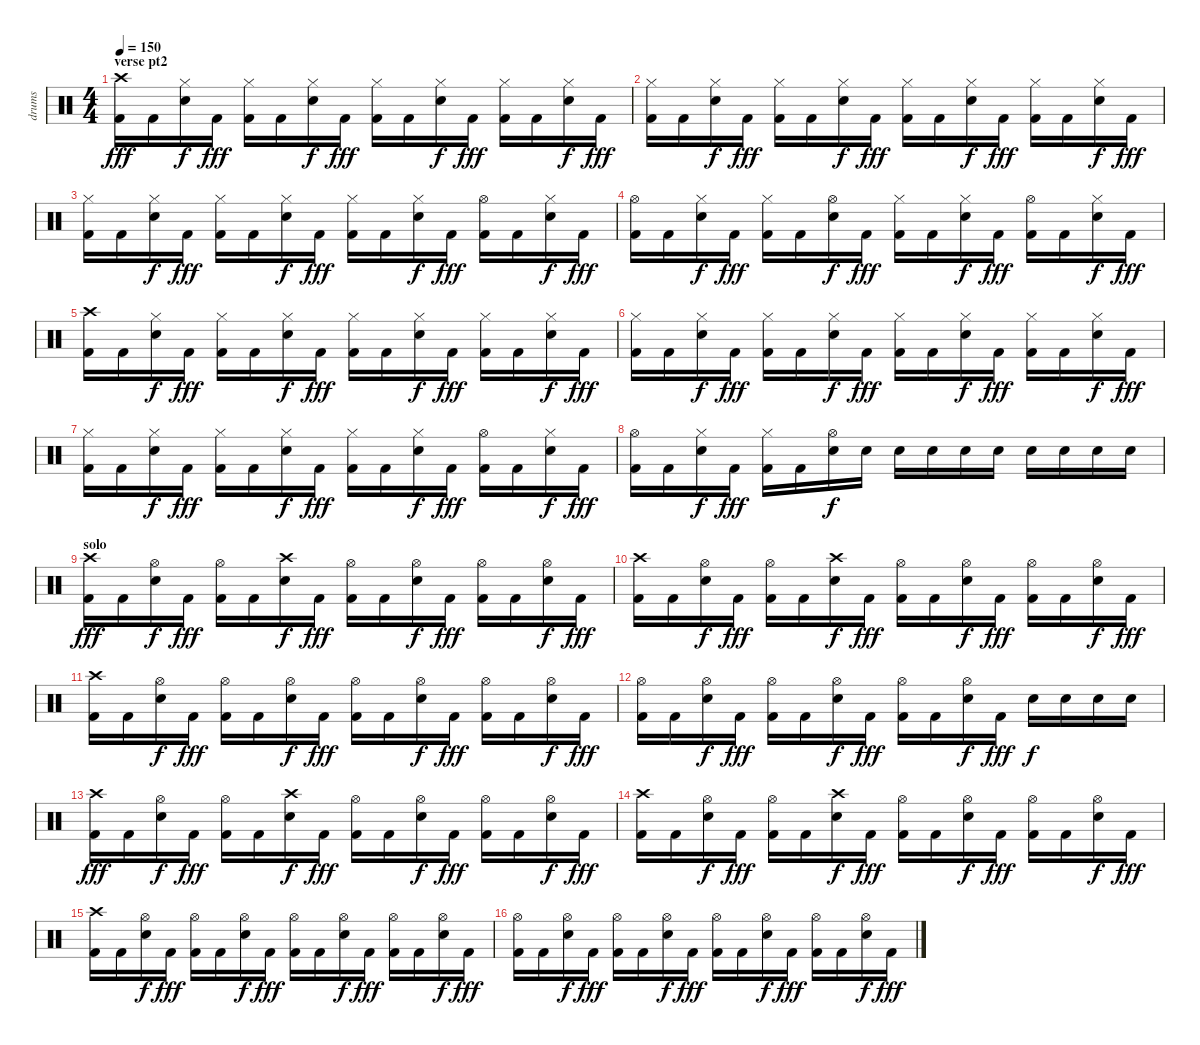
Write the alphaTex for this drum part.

\track ("drums" "drums") {instrument percussion}
\staff {score}
\articulation defaults
\ts (4 4)
\section ("" "verse pt2")
\tempo 150
\clef neutral
\ks c
("Crash high (hit)" "Kick (hit) 2").16{dy fff} "Kick (hit) 2".16 ("Hi-Hat (closed)" "Snare (hit) 2").16{dy f} "Kick (hit) 2".16{dy fff} ("Hi-Hat (closed)" "Kick (hit) 2").16 "Kick (hit) 2".16 ("Hi-Hat (closed)" "Snare (hit) 2").16{dy f} "Kick (hit) 2".16{dy fff} ("Hi-Hat (closed)" "Kick (hit) 2").16 "Kick (hit) 2".16 ("Hi-Hat (closed)" "Snare (hit) 2").16{dy f} "Kick (hit) 2".16{dy fff} ("Hi-Hat (closed)" "Kick (hit) 2").16 "Kick (hit) 2".16 ("Hi-Hat (closed)" "Snare (hit) 2").16{dy f} "Kick (hit) 2".16{dy fff} |
("Hi-Hat (closed)" "Kick (hit) 2").16 "Kick (hit) 2".16 ("Hi-Hat (closed)" "Snare (hit) 2").16{dy f} "Kick (hit) 2".16{dy fff} ("Hi-Hat (closed)" "Kick (hit) 2").16 "Kick (hit) 2".16 ("Hi-Hat (closed)" "Snare (hit) 2").16{dy f} "Kick (hit) 2".16{dy fff} ("Hi-Hat (closed)" "Kick (hit) 2").16 "Kick (hit) 2".16 ("Hi-Hat (closed)" "Snare (hit) 2").16{dy f} "Kick (hit) 2".16{dy fff} ("Hi-Hat (closed)" "Kick (hit) 2").16 "Kick (hit) 2".16 ("Hi-Hat (closed)" "Snare (hit) 2").16{dy f} "Kick (hit) 2".16{dy fff} |
("Hi-Hat (closed)" "Kick (hit) 2").16 "Kick (hit) 2".16 ("Hi-Hat (closed)" "Snare (hit) 2").16{dy f} "Kick (hit) 2".16{dy fff} ("Hi-Hat (closed)" "Kick (hit) 2").16 "Kick (hit) 2".16 ("Hi-Hat (closed)" "Snare (hit) 2").16{dy f} "Kick (hit) 2".16{dy fff} ("Hi-Hat (closed)" "Kick (hit) 2").16 "Kick (hit) 2".16 ("Hi-Hat (closed)" "Snare (hit) 2").16{dy f} "Kick (hit) 2".16{dy fff} ("Hi-Hat (open)" "Kick (hit) 2").16 "Kick (hit) 2".16 ("Hi-Hat (closed)" "Snare (hit) 2").16{dy f} "Kick (hit) 2".16{dy fff} |
("Hi-Hat (open)" "Kick (hit) 2").16 "Kick (hit) 2".16 ("Hi-Hat (closed)" "Snare (hit) 2").16{dy f} "Kick (hit) 2".16{dy fff} ("Hi-Hat (closed)" "Kick (hit) 2").16 "Kick (hit) 2".16 ("Hi-Hat (open)" "Snare (hit) 2").16{dy f} "Kick (hit) 2".16{dy fff} ("Hi-Hat (closed)" "Kick (hit) 2").16 "Kick (hit) 2".16 ("Hi-Hat (closed)" "Snare (hit) 2").16{dy f} "Kick (hit) 2".16{dy fff} ("Hi-Hat (open)" "Kick (hit) 2").16 "Kick (hit) 2".16 ("Hi-Hat (closed)" "Snare (hit) 2").16{dy f} "Kick (hit) 2".16{dy fff} |
("Crash high (hit)" "Kick (hit) 2").16 "Kick (hit) 2".16 ("Hi-Hat (closed)" "Snare (hit) 2").16{dy f} "Kick (hit) 2".16{dy fff} ("Hi-Hat (closed)" "Kick (hit) 2").16 "Kick (hit) 2".16 ("Hi-Hat (closed)" "Snare (hit) 2").16{dy f} "Kick (hit) 2".16{dy fff} ("Hi-Hat (closed)" "Kick (hit) 2").16 "Kick (hit) 2".16 ("Hi-Hat (closed)" "Snare (hit) 2").16{dy f} "Kick (hit) 2".16{dy fff} ("Hi-Hat (closed)" "Kick (hit) 2").16 "Kick (hit) 2".16 ("Hi-Hat (closed)" "Snare (hit) 2").16{dy f} "Kick (hit) 2".16{dy fff} |
("Hi-Hat (closed)" "Kick (hit) 2").16 "Kick (hit) 2".16 ("Hi-Hat (closed)" "Snare (hit) 2").16{dy f} "Kick (hit) 2".16{dy fff} ("Hi-Hat (closed)" "Kick (hit) 2").16 "Kick (hit) 2".16 ("Hi-Hat (closed)" "Snare (hit) 2").16{dy f} "Kick (hit) 2".16{dy fff} ("Hi-Hat (closed)" "Kick (hit) 2").16 "Kick (hit) 2".16 ("Hi-Hat (closed)" "Snare (hit) 2").16{dy f} "Kick (hit) 2".16{dy fff} ("Hi-Hat (closed)" "Kick (hit) 2").16 "Kick (hit) 2".16 ("Hi-Hat (closed)" "Snare (hit) 2").16{dy f} "Kick (hit) 2".16{dy fff} |
("Hi-Hat (closed)" "Kick (hit) 2").16 "Kick (hit) 2".16 ("Hi-Hat (closed)" "Snare (hit) 2").16{dy f} "Kick (hit) 2".16{dy fff} ("Hi-Hat (closed)" "Kick (hit) 2").16 "Kick (hit) 2".16 ("Hi-Hat (closed)" "Snare (hit) 2").16{dy f} "Kick (hit) 2".16{dy fff} ("Hi-Hat (closed)" "Kick (hit) 2").16 "Kick (hit) 2".16 ("Hi-Hat (closed)" "Snare (hit) 2").16{dy f} "Kick (hit) 2".16{dy fff} ("Hi-Hat (open)" "Kick (hit) 2").16 "Kick (hit) 2".16 ("Hi-Hat (closed)" "Snare (hit) 2").16{dy f} "Kick (hit) 2".16{dy fff} |
("Hi-Hat (open)" "Kick (hit) 2").16 "Kick (hit) 2".16 ("Hi-Hat (closed)" "Snare (hit) 2").16{dy f} "Kick (hit) 2".16{dy fff} ("Hi-Hat (closed)" "Kick (hit) 2").16 "Kick (hit) 2".16 ("Hi-Hat (open)" "Snare (hit) 2").16{dy f} "Snare (hit) 2".16 "Snare (hit) 2".16 "Snare (hit) 2".16 "Snare (hit) 2".16 "Snare (hit) 2".16 "Snare (hit) 2".16 "Snare (hit) 2".16 "Snare (hit) 2".16 "Snare (hit) 2".16 |
\section ("" "solo")
("Crash high (hit)" "Kick (hit) 2").16{dy fff} "Kick (hit) 2".16 ("Hi-Hat (open)" "Snare (hit) 2").16{dy f} "Kick (hit) 2".16{dy fff} ("Hi-Hat (open)" "Kick (hit) 2").16 "Kick (hit) 2".16 ("Crash high (hit)" "Snare (hit) 2").16{dy f} "Kick (hit) 2".16{dy fff} ("Hi-Hat (open)" "Kick (hit) 2").16 "Kick (hit) 2".16 ("Hi-Hat (open)" "Snare (hit) 2").16{dy f} "Kick (hit) 2".16{dy fff} ("Hi-Hat (open)" "Kick (hit) 2").16 "Kick (hit) 2".16 ("Hi-Hat (open)" "Snare (hit) 2").16{dy f} "Kick (hit) 2".16{dy fff} |
("Crash high (hit)" "Kick (hit) 2").16 "Kick (hit) 2".16 ("Hi-Hat (open)" "Snare (hit) 2").16{dy f} "Kick (hit) 2".16{dy fff} ("Hi-Hat (open)" "Kick (hit) 2").16 "Kick (hit) 2".16 ("Crash high (hit)" "Snare (hit) 2").16{dy f} "Kick (hit) 2".16{dy fff} ("Hi-Hat (open)" "Kick (hit) 2").16 "Kick (hit) 2".16 ("Hi-Hat (open)" "Snare (hit) 2").16{dy f} "Kick (hit) 2".16{dy fff} ("Hi-Hat (open)" "Kick (hit) 2").16 "Kick (hit) 2".16 ("Hi-Hat (open)" "Snare (hit) 2").16{dy f} "Kick (hit) 2".16{dy fff} |
("Crash high (hit)" "Kick (hit) 2").16 "Kick (hit) 2".16 ("Hi-Hat (open)" "Snare (hit) 2").16{dy f} "Kick (hit) 2".16{dy fff} ("Hi-Hat (open)" "Kick (hit) 2").16 "Kick (hit) 2".16 ("Hi-Hat (open)" "Snare (hit) 2").16{dy f} "Kick (hit) 2".16{dy fff} ("Hi-Hat (open)" "Kick (hit) 2").16 "Kick (hit) 2".16 ("Hi-Hat (open)" "Snare (hit) 2").16{dy f} "Kick (hit) 2".16{dy fff} ("Hi-Hat (open)" "Kick (hit) 2").16 "Kick (hit) 2".16 ("Hi-Hat (open)" "Snare (hit) 2").16{dy f} "Kick (hit) 2".16{dy fff} |
("Hi-Hat (open)" "Kick (hit) 2").16 "Kick (hit) 2".16 ("Hi-Hat (open)" "Snare (hit) 2").16{dy f} "Kick (hit) 2".16{dy fff} ("Hi-Hat (open)" "Kick (hit) 2").16 "Kick (hit) 2".16 ("Hi-Hat (open)" "Snare (hit) 2").16{dy f} "Kick (hit) 2".16{dy fff} ("Hi-Hat (open)" "Kick (hit) 2").16 "Kick (hit) 2".16 ("Hi-Hat (open)" "Snare (hit) 2").16{dy f} "Kick (hit) 2".16{dy fff} "Snare (hit) 2".16{dy f} "Snare (hit) 2".16 "Snare (hit) 2".16 "Snare (hit) 2".16 |
("Crash high (hit)" "Kick (hit) 2").16{dy fff} "Kick (hit) 2".16 ("Hi-Hat (open)" "Snare (hit) 2").16{dy f} "Kick (hit) 2".16{dy fff} ("Hi-Hat (open)" "Kick (hit) 2").16 "Kick (hit) 2".16 ("Crash high (hit)" "Snare (hit) 2").16{dy f} "Kick (hit) 2".16{dy fff} ("Hi-Hat (open)" "Kick (hit) 2").16 "Kick (hit) 2".16 ("Hi-Hat (open)" "Snare (hit) 2").16{dy f} "Kick (hit) 2".16{dy fff} ("Hi-Hat (open)" "Kick (hit) 2").16 "Kick (hit) 2".16 ("Hi-Hat (open)" "Snare (hit) 2").16{dy f} "Kick (hit) 2".16{dy fff} |
("Crash high (hit)" "Kick (hit) 2").16 "Kick (hit) 2".16 ("Hi-Hat (open)" "Snare (hit) 2").16{dy f} "Kick (hit) 2".16{dy fff} ("Hi-Hat (open)" "Kick (hit) 2").16 "Kick (hit) 2".16 ("Crash high (hit)" "Snare (hit) 2").16{dy f} "Kick (hit) 2".16{dy fff} ("Hi-Hat (open)" "Kick (hit) 2").16 "Kick (hit) 2".16 ("Hi-Hat (open)" "Snare (hit) 2").16{dy f} "Kick (hit) 2".16{dy fff} ("Hi-Hat (open)" "Kick (hit) 2").16 "Kick (hit) 2".16 ("Hi-Hat (open)" "Snare (hit) 2").16{dy f} "Kick (hit) 2".16{dy fff} |
("Crash high (hit)" "Kick (hit) 2").16 "Kick (hit) 2".16 ("Hi-Hat (open)" "Snare (hit) 2").16{dy f} "Kick (hit) 2".16{dy fff} ("Hi-Hat (open)" "Kick (hit) 2").16 "Kick (hit) 2".16 ("Hi-Hat (open)" "Snare (hit) 2").16{dy f} "Kick (hit) 2".16{dy fff} ("Hi-Hat (open)" "Kick (hit) 2").16 "Kick (hit) 2".16 ("Hi-Hat (open)" "Snare (hit) 2").16{dy f} "Kick (hit) 2".16{dy fff} ("Hi-Hat (open)" "Kick (hit) 2").16 "Kick (hit) 2".16 ("Hi-Hat (open)" "Snare (hit) 2").16{dy f} "Kick (hit) 2".16{dy fff} |
("Hi-Hat (open)" "Kick (hit) 2").16 "Kick (hit) 2".16 ("Hi-Hat (open)" "Snare (hit) 2").16{dy f} "Kick (hit) 2".16{dy fff} ("Hi-Hat (open)" "Kick (hit) 2").16 "Kick (hit) 2".16 ("Hi-Hat (open)" "Snare (hit) 2").16{dy f} "Kick (hit) 2".16{dy fff} ("Hi-Hat (open)" "Kick (hit) 2").16 "Kick (hit) 2".16 ("Hi-Hat (open)" "Snare (hit) 2").16{dy f} "Kick (hit) 2".16{dy fff} ("Hi-Hat (open)" "Kick (hit) 2").16 "Kick (hit) 2".16 ("Hi-Hat (open)" "Snare (hit) 2").16{dy f} "Kick (hit) 2".16{dy fff}
